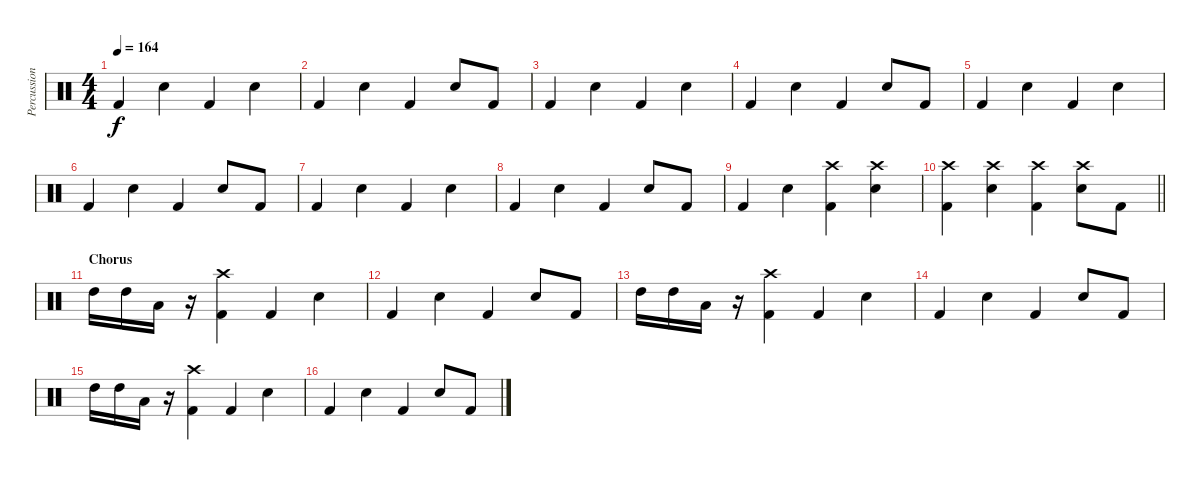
\track ("Percussions" "Percussion") {instrument percussion}
\staff {score}
\articulation defaults
\ts (4 4)
\tempo 164
\clef neutral
\ks c "Kick (hit) 2".4{dy f} "Snare (hit) 2".4 "Kick (hit) 2".4 "Snare (hit) 2".4
|
"Kick (hit) 2".4 "Snare (hit) 2".4 "Kick (hit) 2".4 "Snare (hit) 2".8 "Kick (hit) 2".8 |
"Kick (hit) 2".4 "Snare (hit) 2".4 "Kick (hit) 2".4 "Snare (hit) 2".4 |
"Kick (hit) 2".4 "Snare (hit) 2".4 "Kick (hit) 2".4 "Snare (hit) 2".8 "Kick (hit) 2".8 |
"Kick (hit) 2".4 "Snare (hit) 2".4 "Kick (hit) 2".4 "Snare (hit) 2".4 |
"Kick (hit) 2".4 "Snare (hit) 2".4 "Kick (hit) 2".4 "Snare (hit) 2".8 "Kick (hit) 2".8 |
"Kick (hit) 2".4 "Snare (hit) 2".4 "Kick (hit) 2".4 "Snare (hit) 2".4 |
"Kick (hit) 2".4 "Snare (hit) 2".4 "Kick (hit) 2".4 "Snare (hit) 2".8 "Kick (hit) 2".8 |
"Kick (hit) 2".4 "Snare (hit) 2".4 ("Crash high (hit)" "Kick (hit) 2").4 ("Crash high (hit)" "Snare (hit) 2").4 |
\barLineRight lightlight
("Crash high (hit)" "Kick (hit) 2").4 ("Crash high (hit)" "Snare (hit) 2").4 ("Crash high (hit)" "Kick (hit) 2").4 ("Crash high (hit)" "Snare (hit) 2").8 "Kick (hit) 2".8 |
\section ("" "Chorus")
"High Tom (hit)".16 "High Tom (hit)".16 "Low Tom (hit)".16 r.16 ("Crash high (hit)" "Kick (hit) 2").4 "Kick (hit) 2".4 "Snare (hit) 2".4 |
"Kick (hit) 2".4 "Snare (hit) 2".4 "Kick (hit) 2".4 "Snare (hit) 2".8 "Kick (hit) 2".8 |
"High Tom (hit)".16 "High Tom (hit)".16 "Low Tom (hit)".16 r.16 ("Crash high (hit)" "Kick (hit) 2").4 "Kick (hit) 2".4 "Snare (hit) 2".4 |
"Kick (hit) 2".4 "Snare (hit) 2".4 "Kick (hit) 2".4 "Snare (hit) 2".8 "Kick (hit) 2".8 |
"High Tom (hit)".16 "High Tom (hit)".16 "Low Tom (hit)".16 r.16 ("Crash high (hit)" "Kick (hit) 2").4 "Kick (hit) 2".4 "Snare (hit) 2".4 |
"Kick (hit) 2".4 "Snare (hit) 2".4 "Kick (hit) 2".4 "Snare (hit) 2".8 "Kick (hit) 2".8
